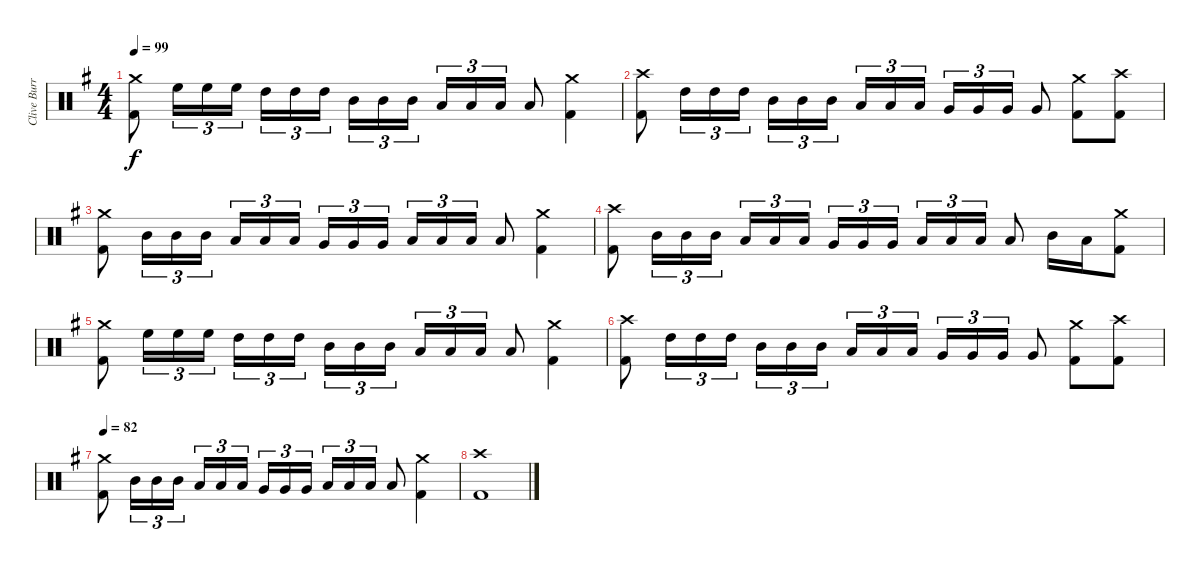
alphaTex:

\track ("Clive Burr" "Clive Burr") {instrument percussion}
\staff {score}
\articulation defaults
\ts (4 4)
\tempo 99
\clef neutral
\ks eminor
("Crash medium (hit)" "Kick (hit) 2").8{dy f} "High Floor Tom (hit)".16{tu (3 2)} "High Floor Tom (hit)".16{tu (3 2)} "High Floor Tom (hit)".16{tu (3 2)} "High Tom (hit)".16{tu (3 2)} "High Tom (hit)".16{tu (3 2)} "High Tom (hit)".16{tu (3 2) beam splitsecondary} "Mid Tom (hit)".16{tu (3 2)} "Mid Tom (hit)".16{tu (3 2)} "Mid Tom (hit)".16{tu (3 2)} "Low Tom (hit)".16{tu (3 2)} "Low Tom (hit)".16{tu (3 2)} "Low Tom (hit)".16{tu (3 2)} "Low Tom (hit)".8 ("Crash medium (hit)" "Kick (hit) 2").4 |
("Crash high (hit)" "Kick (hit) 2").8 "High Tom (hit)".16{tu (3 2)} "High Tom (hit)".16{tu (3 2)} "High Tom (hit)".16{tu (3 2)} "Mid Tom (hit)".16{tu (3 2)} "Mid Tom (hit)".16{tu (3 2)} "Mid Tom (hit)".16{tu (3 2) beam splitsecondary} "Low Tom (hit)".16{tu (3 2)} "Low Tom (hit)".16{tu (3 2)} "Low Tom (hit)".16{tu (3 2)} "Very Low Tom (hit)".16{tu (3 2)} "Very Low Tom (hit)".16{tu (3 2)} "Very Low Tom (hit)".16{tu (3 2)} "Very Low Tom (hit)".8 ("Crash medium (hit)" "Kick (hit) 2").8 ("Crash high (hit)" "Kick (hit) 2").8 |
("Crash medium (hit)" "Kick (hit) 2").8 "Mid Tom (hit)".16{tu (3 2)} "Mid Tom (hit)".16{tu (3 2)} "Mid Tom (hit)".16{tu (3 2)} "Low Tom (hit)".16{tu (3 2)} "Low Tom (hit)".16{tu (3 2)} "Low Tom (hit)".16{tu (3 2) beam splitsecondary} "Very Low Tom (hit)".16{tu (3 2)} "Very Low Tom (hit)".16{tu (3 2)} "Very Low Tom (hit)".16{tu (3 2)} "Low Floor Tom (hit)".16{tu (3 2)} "Low Floor Tom (hit)".16{tu (3 2)} "Low Floor Tom (hit)".16{tu (3 2)} "Low Floor Tom (hit)".8 ("Crash medium (hit)" "Kick (hit) 2").4 |
("Crash high (hit)" "Kick (hit) 2").8 "Mid Tom (hit)".16{tu (3 2)} "Mid Tom (hit)".16{tu (3 2)} "Mid Tom (hit)".16{tu (3 2)} "Low Tom (hit)".16{tu (3 2)} "Low Tom (hit)".16{tu (3 2)} "Low Tom (hit)".16{tu (3 2) beam splitsecondary} "Very Low Tom (hit)".16{tu (3 2)} "Very Low Tom (hit)".16{tu (3 2)} "Very Low Tom (hit)".16{tu (3 2)} "Low Floor Tom (hit)".16{tu (3 2)} "Low Floor Tom (hit)".16{tu (3 2)} "Low Floor Tom (hit)".16{tu (3 2)} "Low Floor Tom (hit)".8 "Mid Tom (hit)".16 "Low Tom (hit)".16 ("Crash medium (hit)" "Kick (hit) 2").8 |
("Crash medium (hit)" "Kick (hit) 2").8 "High Floor Tom (hit)".16{tu (3 2)} "High Floor Tom (hit)".16{tu (3 2)} "High Floor Tom (hit)".16{tu (3 2)} "High Tom (hit)".16{tu (3 2)} "High Tom (hit)".16{tu (3 2)} "High Tom (hit)".16{tu (3 2) beam splitsecondary} "Mid Tom (hit)".16{tu (3 2)} "Mid Tom (hit)".16{tu (3 2)} "Mid Tom (hit)".16{tu (3 2)} "Low Tom (hit)".16{tu (3 2)} "Low Tom (hit)".16{tu (3 2)} "Low Tom (hit)".16{tu (3 2)} "Low Tom (hit)".8 ("Crash medium (hit)" "Kick (hit) 2").4 |
("Crash high (hit)" "Kick (hit) 2").8 "High Tom (hit)".16{tu (3 2)} "High Tom (hit)".16{tu (3 2)} "High Tom (hit)".16{tu (3 2)} "Mid Tom (hit)".16{tu (3 2)} "Mid Tom (hit)".16{tu (3 2)} "Mid Tom (hit)".16{tu (3 2) beam splitsecondary} "Low Tom (hit)".16{tu (3 2)} "Low Tom (hit)".16{tu (3 2)} "Low Tom (hit)".16{tu (3 2)} "Very Low Tom (hit)".16{tu (3 2)} "Very Low Tom (hit)".16{tu (3 2)} "Very Low Tom (hit)".16{tu (3 2)} "Very Low Tom (hit)".8 ("Crash medium (hit)" "Kick (hit) 2").8 ("Crash high (hit)" "Kick (hit) 2").8 |
\tempo 82
("Crash medium (hit)" "Kick (hit) 2").8 "Mid Tom (hit)".16{tu (3 2)} "Mid Tom (hit)".16{tu (3 2)} "Mid Tom (hit)".16{tu (3 2)} "Low Tom (hit)".16{tu (3 2)} "Low Tom (hit)".16{tu (3 2)} "Low Tom (hit)".16{tu (3 2) beam splitsecondary} "Very Low Tom (hit)".16{tu (3 2)} "Very Low Tom (hit)".16{tu (3 2)} "Very Low Tom (hit)".16{tu (3 2)} "Low Floor Tom (hit)".16{tu (3 2)} "Low Floor Tom (hit)".16{tu (3 2)} "Low Floor Tom (hit)".16{tu (3 2)} "Low Floor Tom (hit)".8 ("Crash medium (hit)" "Kick (hit) 2").4 |
("Crash high (hit)" "Kick (hit) 2").1
